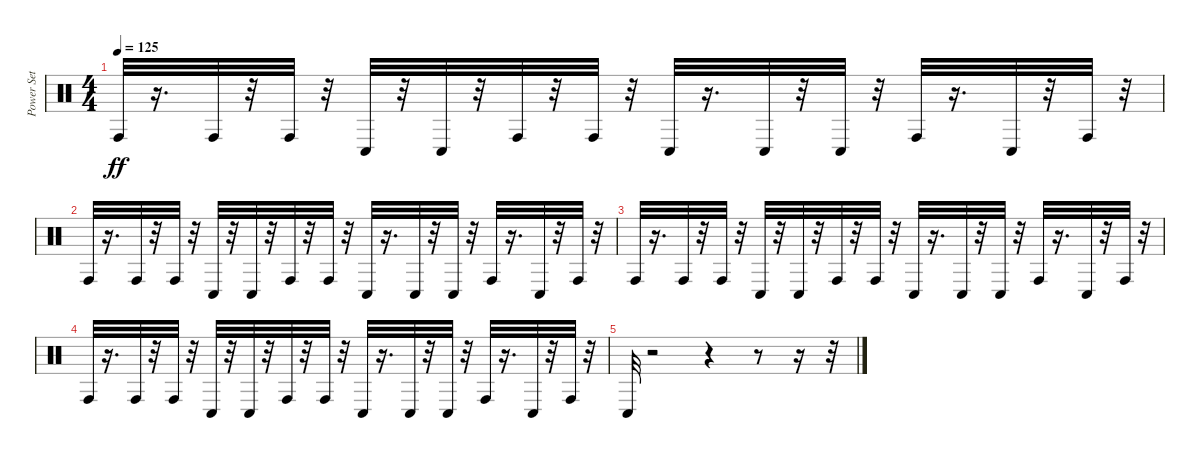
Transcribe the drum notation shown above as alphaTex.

\track ("Power Set" "Power Set") {instrument percussion}
\staff {score}
\articulation defaults
\ts (4 4)
\tempo 125
\clef neutral
\ks c "Conga high (hit)".32{dy ff}
r.16{d} "Conga high (hit)".32 r.32 "Conga high (hit)".32 r.32 "Conga low (hit)".32 r.32 "Conga low (hit)".32 r.32 "Conga high (hit)".32 r.32 "Conga high (hit)".32 r.32 "Conga low (hit)".32 r.16{d} "Conga low (hit)".32 r.32 "Conga low (hit)".32 r.32 "Conga high (hit)".32 r.16{d} "Conga low (hit)".32 r.32 "Conga high (hit)".32 r.32 |
"Conga high (hit)".32 r.16{d} "Conga high (hit)".32 r.32 "Conga high (hit)".32 r.32 "Conga low (hit)".32 r.32 "Conga low (hit)".32 r.32 "Conga high (hit)".32 r.32 "Conga high (hit)".32 r.32 "Conga low (hit)".32 r.16{d} "Conga low (hit)".32 r.32 "Conga low (hit)".32 r.32 "Conga high (hit)".32 r.16{d} "Conga low (hit)".32 r.32 "Conga high (hit)".32 r.32 |
"Conga high (hit)".32 r.16{d} "Conga high (hit)".32 r.32 "Conga high (hit)".32 r.32 "Conga low (hit)".32 r.32 "Conga low (hit)".32 r.32 "Conga high (hit)".32 r.32 "Conga high (hit)".32 r.32 "Conga low (hit)".32 r.16{d} "Conga low (hit)".32 r.32 "Conga low (hit)".32 r.32 "Conga high (hit)".32 r.16{d} "Conga low (hit)".32 r.32 "Conga high (hit)".32 r.32 |
"Conga high (hit)".32 r.16{d} "Conga high (hit)".32 r.32 "Conga high (hit)".32 r.32 "Conga low (hit)".32 r.32 "Conga low (hit)".32 r.32 "Conga high (hit)".32 r.32 "Conga high (hit)".32 r.32 "Conga low (hit)".32 r.16{d} "Conga low (hit)".32 r.32 "Conga low (hit)".32 r.32 "Conga high (hit)".32 r.16{d} "Conga low (hit)".32 r.32 "Conga high (hit)".32 r.32 |
"Conga low (hit)".32 r.2 r.4 r.8 r.16 r.32
